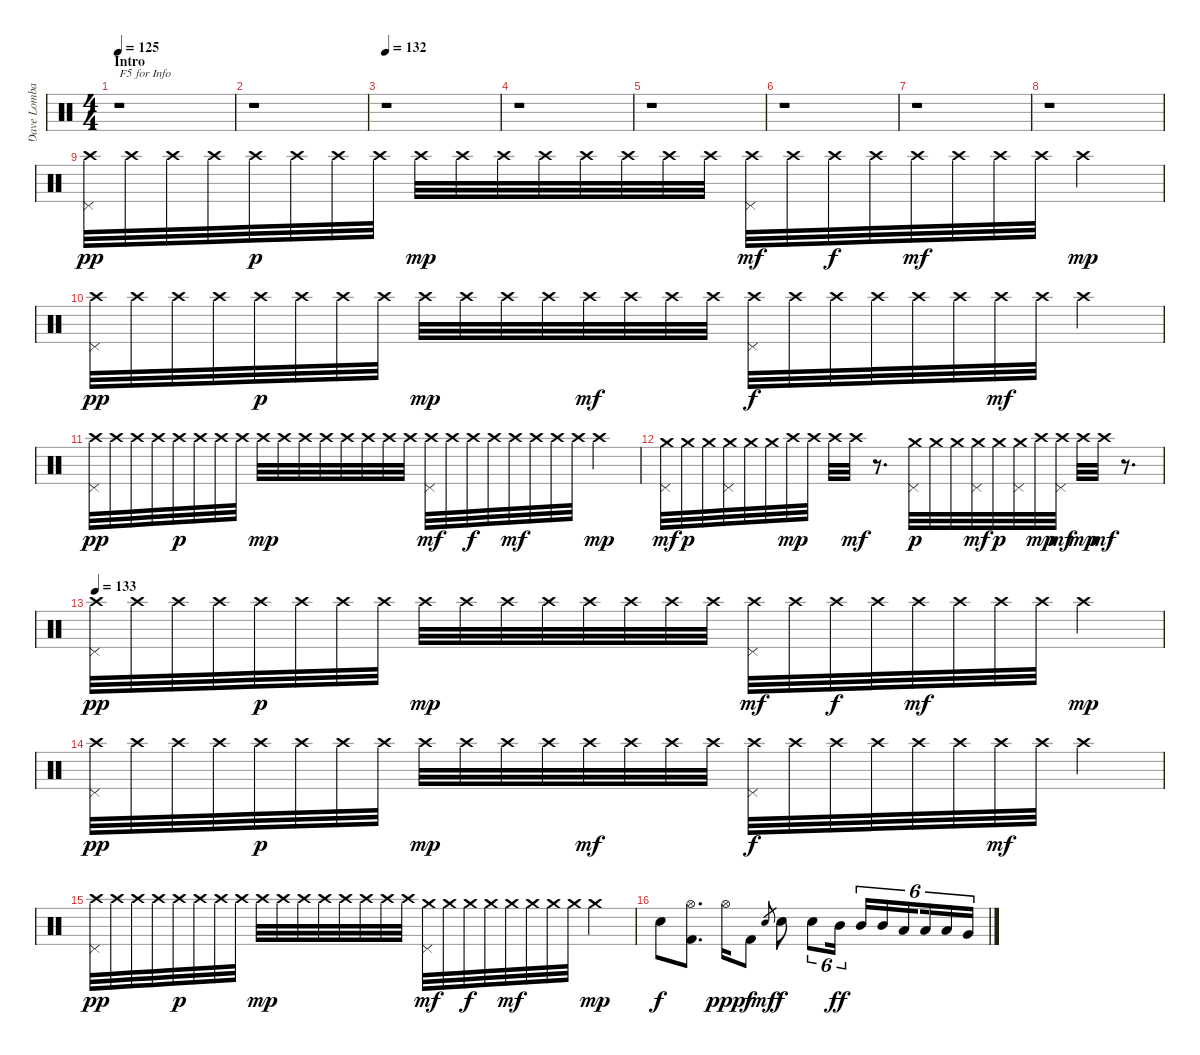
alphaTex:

\track ("Dave Lombardo" "Dave Lomba") {instrument percussion}
\staff {score}
\articulation defaults
\ts (4 4)
\section ("" "Intro")
\tempo 125
\tempo 134
\tempo 125
\clef neutral
\ks c
r.1{txt "F5 for Info" dy pp} |
r.1 |
\tempo 132
r.1 |
r.1 |
r.1 |
r.1 |
r.1 |
r.1 |
("Crash high (hit)" "Pedal Hi-Hat (hit)").32 "Crash high (hit)".32 "Crash high (hit)".32 "Crash high (hit)".32 "Crash high (hit)".32{dy p} "Crash high (hit)".32 "Crash high (hit)".32 "Crash high (hit)".32 "Crash high (hit)".32{dy mp} "Crash high (hit)".32 "Crash high (hit)".32 "Crash high (hit)".32 "Crash high (hit)".32 "Crash high (hit)".32 "Crash high (hit)".32 "Crash high (hit)".32 ("Crash high (hit)" "Pedal Hi-Hat (hit)").32{dy mf} "Crash high (hit)".32 "Crash high (hit)".32{dy f} "Crash high (hit)".32 "Crash high (hit)".32{dy mf} "Crash high (hit)".32 "Crash high (hit)".32 "Crash high (hit)".32 "Crash high (hit)".4{dy mp} |
("Crash high (hit)" "Pedal Hi-Hat (hit)").32{dy pp} "Crash high (hit)".32 "Crash high (hit)".32 "Crash high (hit)".32 "Crash high (hit)".32{dy p} "Crash high (hit)".32 "Crash high (hit)".32 "Crash high (hit)".32 "Crash high (hit)".32{dy mp} "Crash high (hit)".32 "Crash high (hit)".32 "Crash high (hit)".32 "Crash high (hit)".32{dy mf} "Crash high (hit)".32 "Crash high (hit)".32 "Crash high (hit)".32 ("Crash high (hit)" "Pedal Hi-Hat (hit)").32{dy f} "Crash high (hit)".32 "Crash high (hit)".32 "Crash high (hit)".32 "Crash high (hit)".32 "Crash high (hit)".32 "Crash high (hit)".32{dy mf} "Crash high (hit)".32 "Crash high (hit)".4 |
("Crash high (hit)" "Pedal Hi-Hat (hit)").32{dy pp} "Crash high (hit)".32 "Crash high (hit)".32 "Crash high (hit)".32 "Crash high (hit)".32{dy p} "Crash high (hit)".32 "Crash high (hit)".32 "Crash high (hit)".32 "Crash high (hit)".32{dy mp} "Crash high (hit)".32 "Crash high (hit)".32 "Crash high (hit)".32 "Crash high (hit)".32 "Crash high (hit)".32 "Crash high (hit)".32 "Crash high (hit)".32 ("Crash high (hit)" "Pedal Hi-Hat (hit)").32{dy mf} "Crash high (hit)".32 "Crash high (hit)".32{dy f} "Crash high (hit)".32 "Crash high (hit)".32{dy mf} "Crash high (hit)".32 "Crash high (hit)".32 "Crash high (hit)".32 "Crash high (hit)".4{dy mp} |
("Crash medium (hit)" "Pedal Hi-Hat (hit)").32{dy mf} "Crash medium (hit)".32{dy p} "Crash medium (hit)".32 ("Crash medium (hit)" "Pedal Hi-Hat (hit)").32 "Crash medium (hit)".32 "Crash medium (hit)".32 "Crash high (hit)".32{dy mp} "Crash high (hit)".32 "Crash high (hit)".32 "Crash high (hit)".32{dy mf} r.8{d} ("Crash medium (hit)" "Pedal Hi-Hat (hit)").32{dy p} "Crash medium (hit)".32 "Crash medium (hit)".32 ("Crash medium (hit)" "Pedal Hi-Hat (hit)").32{dy mf} "Crash medium (hit)".32{dy p} ("Crash medium (hit)" "Pedal Hi-Hat (hit)").32 "Crash high (hit)".32{dy mp} ("Crash high (hit)" "Pedal Hi-Hat (hit)").32{dy mf} "Crash high (hit)".32{dy mp} "Crash high (hit)".32{dy mf} r.8{d} |
\tempo 133
("Crash high (hit)" "Pedal Hi-Hat (hit)").32{dy pp} "Crash high (hit)".32 "Crash high (hit)".32 "Crash high (hit)".32 "Crash high (hit)".32{dy p} "Crash high (hit)".32 "Crash high (hit)".32 "Crash high (hit)".32 "Crash high (hit)".32{dy mp} "Crash high (hit)".32 "Crash high (hit)".32 "Crash high (hit)".32 "Crash high (hit)".32 "Crash high (hit)".32 "Crash high (hit)".32 "Crash high (hit)".32 ("Crash high (hit)" "Pedal Hi-Hat (hit)").32{dy mf} "Crash high (hit)".32 "Crash high (hit)".32{dy f} "Crash high (hit)".32 "Crash high (hit)".32{dy mf} "Crash high (hit)".32 "Crash high (hit)".32 "Crash high (hit)".32 "Crash high (hit)".4{dy mp} |
("Crash high (hit)" "Pedal Hi-Hat (hit)").32{dy pp} "Crash high (hit)".32 "Crash high (hit)".32 "Crash high (hit)".32 "Crash high (hit)".32{dy p} "Crash high (hit)".32 "Crash high (hit)".32 "Crash high (hit)".32 "Crash high (hit)".32{dy mp} "Crash high (hit)".32 "Crash high (hit)".32 "Crash high (hit)".32 "Crash high (hit)".32{dy mf} "Crash high (hit)".32 "Crash high (hit)".32 "Crash high (hit)".32 ("Crash high (hit)" "Pedal Hi-Hat (hit)").32{dy f} "Crash high (hit)".32 "Crash high (hit)".32 "Crash high (hit)".32 "Crash high (hit)".32 "Crash high (hit)".32 "Crash high (hit)".32{dy mf} "Crash high (hit)".32 "Crash high (hit)".4 |
("Crash high (hit)" "Pedal Hi-Hat (hit)").32{dy pp} "Crash high (hit)".32 "Crash high (hit)".32 "Crash high (hit)".32 "Crash high (hit)".32{dy p} "Crash high (hit)".32 "Crash high (hit)".32 "Crash high (hit)".32 "Crash high (hit)".32{dy mp} "Crash high (hit)".32 "Crash high (hit)".32 "Crash high (hit)".32 "Crash high (hit)".32 "Crash high (hit)".32 "Crash high (hit)".32 "Crash high (hit)".32 ("Crash medium (hit)" "Pedal Hi-Hat (hit)").32{dy mf} "Crash medium (hit)".32 "Crash medium (hit)".32{dy f} "Crash medium (hit)".32 "Crash medium (hit)".32{dy mf} "Crash medium (hit)".32 "Crash medium (hit)".32 "Crash medium (hit)".32 "Crash medium (hit)".4{dy mp} |
"Snare (hit) 2".8{dy f} ("Hi-Hat (open)" "Kick (hit) 2").8{d} "Hi-Hat (open)".16{dy ppp} "Kick (hit) 2".8{dy f} "Snare (hit) 2".8{gr dy mf} "Snare (hit) 2".8{dy f} "Snare (hit) 2".8{tu (6 4)} "Mid Tom (hit)".16{tu (6 4) dy ff} "Mid Tom (hit)".16{tu (6 4)} "Mid Tom (hit)".16{tu (6 4)} "Low Tom (hit)".16{tu (6 4) beam splitsecondary} "Low Tom (hit)".16{tu (6 4)} "Low Tom (hit)".16{tu (6 4)} "Very Low Tom (hit)".16{tu (6 4)}
